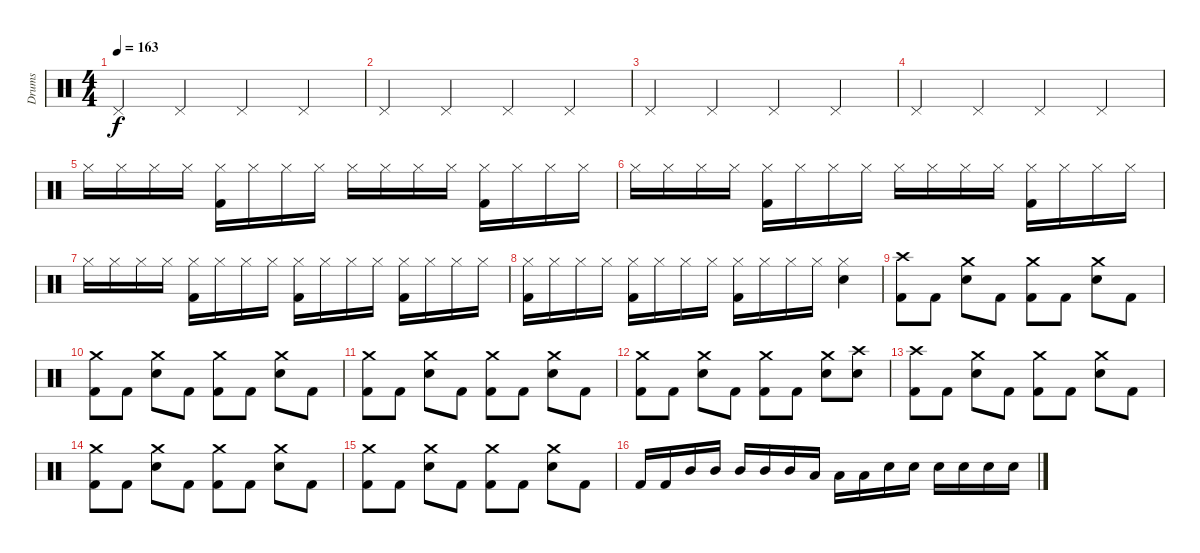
\track ("Drums" "Drums") {instrument percussion}
\staff {score}
\articulation defaults
\ts (4 4)
\tempo 163
\clef neutral
\ks c "Pedal Hi-Hat (hit)".4{dy f} "Pedal Hi-Hat (hit)".4 "Pedal Hi-Hat (hit)".4 "Pedal Hi-Hat (hit)".4
|
"Pedal Hi-Hat (hit)".4 "Pedal Hi-Hat (hit)".4 "Pedal Hi-Hat (hit)".4 "Pedal Hi-Hat (hit)".4 |
"Pedal Hi-Hat (hit)".4 "Pedal Hi-Hat (hit)".4 "Pedal Hi-Hat (hit)".4 "Pedal Hi-Hat (hit)".4 |
"Pedal Hi-Hat (hit)".4 "Pedal Hi-Hat (hit)".4 "Pedal Hi-Hat (hit)".4 "Pedal Hi-Hat (hit)".4 |
"Hi-Hat (closed)".16 "Hi-Hat (closed)".16 "Hi-Hat (closed)".16 "Hi-Hat (closed)".16 ("Hi-Hat (closed)" "Kick (hit) 2").16 "Hi-Hat (closed)".16 "Hi-Hat (closed)".16 "Hi-Hat (closed)".16 "Hi-Hat (closed)".16 "Hi-Hat (closed)".16 "Hi-Hat (closed)".16 "Hi-Hat (closed)".16 ("Hi-Hat (closed)" "Kick (hit) 2").16 "Hi-Hat (closed)".16 "Hi-Hat (closed)".16 "Hi-Hat (closed)".16 |
"Hi-Hat (closed)".16 "Hi-Hat (closed)".16 "Hi-Hat (closed)".16 "Hi-Hat (closed)".16 ("Hi-Hat (closed)" "Kick (hit) 2").16 "Hi-Hat (closed)".16 "Hi-Hat (closed)".16 "Hi-Hat (closed)".16 "Hi-Hat (closed)".16 "Hi-Hat (closed)".16 "Hi-Hat (closed)".16 "Hi-Hat (closed)".16 ("Hi-Hat (closed)" "Kick (hit) 2").16 "Hi-Hat (closed)".16 "Hi-Hat (closed)".16 "Hi-Hat (closed)".16 |
"Hi-Hat (closed)".16 "Hi-Hat (closed)".16 "Hi-Hat (closed)".16 "Hi-Hat (closed)".16 ("Hi-Hat (closed)" "Kick (hit) 2").16 "Hi-Hat (closed)".16 "Hi-Hat (closed)".16 "Hi-Hat (closed)".16 ("Hi-Hat (closed)" "Kick (hit) 2").16 "Hi-Hat (closed)".16 "Hi-Hat (closed)".16 "Hi-Hat (closed)".16 ("Hi-Hat (closed)" "Kick (hit) 2").16 "Hi-Hat (closed)".16 "Hi-Hat (closed)".16 "Hi-Hat (closed)".16 |
("Hi-Hat (closed)" "Kick (hit) 2").16 "Hi-Hat (closed)".16 "Hi-Hat (closed)".16 "Hi-Hat (closed)".16 ("Hi-Hat (closed)" "Kick (hit) 2").16 "Hi-Hat (closed)".16 "Hi-Hat (closed)".16 "Hi-Hat (closed)".16 ("Hi-Hat (closed)" "Kick (hit) 2").16 "Hi-Hat (closed)".16 "Hi-Hat (closed)".16 "Hi-Hat (closed)".16 ("Hi-Hat (closed)" "Electric Snare (hit)").4 |
("Crash high (hit)" "Kick (hit) 2").8 "Kick (hit) 2".8 ("Crash medium (hit)" "Electric Snare (hit)").8 "Kick (hit) 2".8 ("Crash medium (hit)" "Kick (hit) 2").8 "Kick (hit) 2".8 ("Crash medium (hit)" "Electric Snare (hit)").8 "Kick (hit) 2".8 |
("Crash medium (hit)" "Kick (hit) 2").8 "Kick (hit) 2".8 ("Crash medium (hit)" "Electric Snare (hit)").8 "Kick (hit) 2".8 ("Crash medium (hit)" "Kick (hit) 2").8 "Kick (hit) 2".8 ("Crash medium (hit)" "Electric Snare (hit)").8 "Kick (hit) 2".8 |
("Crash medium (hit)" "Kick (hit) 2").8 "Kick (hit) 2".8 ("Crash medium (hit)" "Electric Snare (hit)").8 "Kick (hit) 2".8 ("Crash medium (hit)" "Kick (hit) 2").8 "Kick (hit) 2".8 ("Crash medium (hit)" "Electric Snare (hit)").8 "Kick (hit) 2".8 |
("Crash medium (hit)" "Kick (hit) 2").8 "Kick (hit) 2".8 ("Crash medium (hit)" "Electric Snare (hit)").8 "Kick (hit) 2".8 ("Crash medium (hit)" "Kick (hit) 2").8 "Kick (hit) 2".8 ("Crash medium (hit)" "Electric Snare (hit)").8 ("Crash high (hit)" "Electric Snare (hit)").8 |
("Crash high (hit)" "Kick (hit) 2").8 "Kick (hit) 2".8 ("Crash medium (hit)" "Electric Snare (hit)").8 "Kick (hit) 2".8 ("Crash medium (hit)" "Kick (hit) 2").8 "Kick (hit) 2".8 ("Crash medium (hit)" "Electric Snare (hit)").8 "Kick (hit) 2".8 |
("Crash medium (hit)" "Kick (hit) 2").8 "Kick (hit) 2".8 ("Crash medium (hit)" "Electric Snare (hit)").8 "Kick (hit) 2".8 ("Crash medium (hit)" "Kick (hit) 2").8 "Kick (hit) 2".8 ("Crash medium (hit)" "Electric Snare (hit)").8 "Kick (hit) 2".8 |
("Crash medium (hit)" "Kick (hit) 2").8 "Kick (hit) 2".8 ("Crash medium (hit)" "Electric Snare (hit)").8 "Kick (hit) 2".8 ("Crash medium (hit)" "Kick (hit) 2").8 "Kick (hit) 2".8 ("Crash medium (hit)" "Electric Snare (hit)").8 "Kick (hit) 2".8 |
"Kick (hit) 2".16 "Kick (hit) 2".16 "Mid Tom (hit)".16 "Mid Tom (hit)".16 "Mid Tom (hit)".16 "Mid Tom (hit)".16 "Mid Tom (hit)".16 "Low Tom (hit)".16 "Low Tom (hit)".16 "Low Tom (hit)".16 "Electric Snare (hit)".16 "Electric Snare (hit)".16 "Electric Snare (hit)".16 "Electric Snare (hit)".16 "Electric Snare (hit)".16 "Electric Snare (hit)".16
